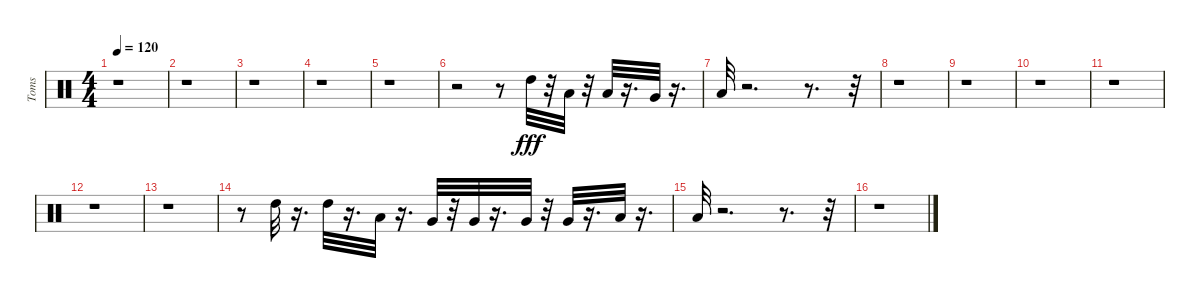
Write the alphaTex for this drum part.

\track ("Toms" "Toms") {instrument percussion}
\staff {score}
\articulation defaults
\ts (4 4)
\tempo 120
\clef neutral
\ks c
r.1{dy fff} |
r.1 |
r.1 |
r.1 |
r.1 |
r.2 r.8 "High Tom (hit)".32 r.32 "Low Tom (hit)".32 r.32 "Low Tom (hit)".32 r.16{d} "Very Low Tom (hit)".32 r.16{d} |
"Low Floor Tom (hit)".32 r.2{d} r.8{d} r.32 |
r.1 |
r.1 |
r.1 |
r.1 |
r.1 |
r.1 |
r.8 "High Tom (hit)".32 r.16{d} "High Tom (hit)".32 r.16{d} "Low Tom (hit)".32 r.16{d} "Very Low Tom (hit)".32 r.32 "Very Low Tom (hit)".32 r.16{d} "Very Low Tom (hit)".32 r.32 "Very Low Tom (hit)".32 r.16{d} "Low Floor Tom (hit)".32 r.16{d} |
"Low Floor Tom (hit)".32 r.2{d} r.8{d} r.32 |
r.1
